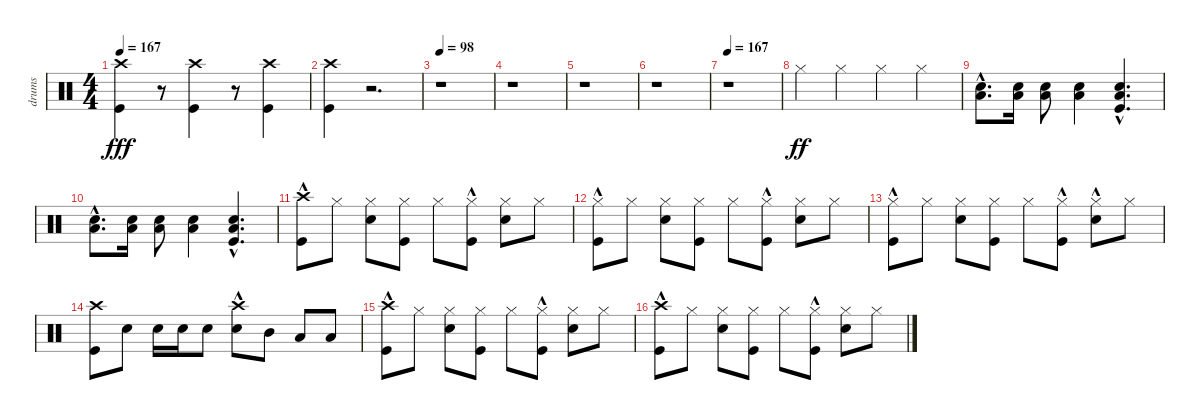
\track ("drums" "drums") {instrument percussion}
\staff {score}
\articulation defaults
\ts (4 4)
\tempo 167
\clef neutral
\ks c
("Kick (hit)" "Crash high (hit)").4{dy fff} r.8 ("Kick (hit)" "Crash high (hit)").4 r.8 ("Crash high (hit)" "Kick (hit)").4 |
("Kick (hit)" "Crash high (hit)").4 r.2{d} |
\tempo 98
r.1 |
r.1 |
r.1 |
r.1 |
\tempo 167
r.1 |
"Hi-Hat (closed)".4{dy ff} "Hi-Hat (closed)".4 "Hi-Hat (closed)".4 "Hi-Hat (closed)".4 |
("Snare (hit) 2"{hac} "Low Floor Tom (hit)"{hac}).8{d} ("Snare (hit) 2" "Low Floor Tom (hit)").16 ("Snare (hit) 2" "Low Floor Tom (hit)").8 ("Snare (hit) 2" "Low Floor Tom (hit)").4 ("Low Floor Tom (hit)"{hac} "Snare (hit) 2"{hac} "Kick (hit)").4{d} |
("Snare (hit) 2"{hac} "Low Floor Tom (hit)"{hac}).8{d} ("Snare (hit) 2" "Low Floor Tom (hit)").16 ("Snare (hit) 2" "Low Floor Tom (hit)").8 ("Snare (hit) 2" "Low Floor Tom (hit)").4 ("Low Floor Tom (hit)" "Snare (hit) 2" "Kick (hit)"{hac}).4{d} |
("Crash high (hit)" "Kick (hit)"{hac}).8 "Hi-Hat (closed)".8 ("Snare (hit) 2" "Hi-Hat (closed)").8 ("Kick (hit)" "Hi-Hat (closed)").8 "Hi-Hat (closed)".8 ("Kick (hit)"{hac} "Hi-Hat (closed)").8 ("Snare (hit) 2" "Hi-Hat (closed)").8 "Hi-Hat (closed)".8 |
("Kick (hit)"{hac} "Hi-Hat (closed)").8 "Hi-Hat (closed)".8 ("Snare (hit) 2" "Hi-Hat (closed)").8 ("Kick (hit)" "Hi-Hat (closed)").8 "Hi-Hat (closed)".8 ("Kick (hit)"{hac} "Hi-Hat (closed)").8 ("Snare (hit) 2" "Hi-Hat (closed)").8 "Hi-Hat (closed)".8 |
("Kick (hit)"{hac} "Hi-Hat (closed)").8 "Hi-Hat (closed)".8 ("Snare (hit) 2" "Hi-Hat (closed)").8 ("Kick (hit)" "Hi-Hat (closed)").8 "Hi-Hat (closed)".8 ("Kick (hit)"{hac} "Hi-Hat (closed)").8 ("Snare (hit) 2"{hac} "Hi-Hat (closed)").8 "Hi-Hat (closed)".8 |
("Kick (hit)" "Crash high (hit)").8 "Snare (hit) 2".8 "Snare (hit) 2".16 "Snare (hit) 2".16 "Snare (hit) 2".8 ("Crash high (hit)" "Snare (hit) 2"{hac}).8 "Mid Tom (hit)".8 "Low Tom (hit)".8 "Low Floor Tom (hit)".8 |
("Crash high (hit)" "Kick (hit)"{hac}).8 "Hi-Hat (closed)".8 ("Snare (hit) 2" "Hi-Hat (closed)").8 ("Kick (hit)" "Hi-Hat (closed)").8 "Hi-Hat (closed)".8 ("Kick (hit)"{hac} "Hi-Hat (closed)").8 ("Snare (hit) 2" "Hi-Hat (closed)").8 "Hi-Hat (closed)".8 |
("Crash high (hit)" "Kick (hit)"{hac}).8 "Hi-Hat (closed)".8 ("Snare (hit) 2" "Hi-Hat (closed)").8 ("Kick (hit)" "Hi-Hat (closed)").8 "Hi-Hat (closed)".8 ("Kick (hit)"{hac} "Hi-Hat (closed)").8 ("Snare (hit) 2" "Hi-Hat (closed)").8 "Hi-Hat (closed)".8
